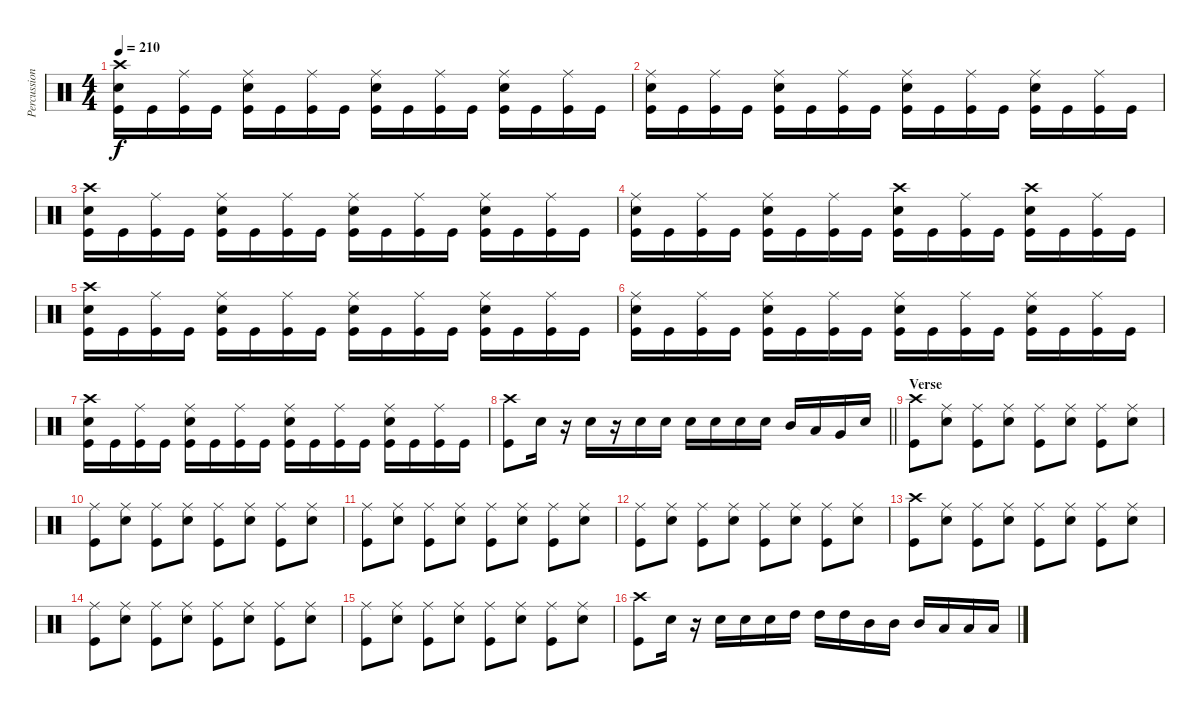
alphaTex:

\track ("Percussion" "Percussion") {instrument percussion}
\staff {score}
\articulation defaults
\ts (4 4)
\section ("" "")
\tempo 210
\clef neutral
\ks c
("Crash high (hit)" "Snare (hit) 2" "Kick (hit)").16{dy f} "Kick (hit)".16 ("Ride (middle)" "Kick (hit)").16 "Kick (hit)".16 ("Ride (middle)" "Snare (hit) 2" "Kick (hit)").16 "Kick (hit)".16 ("Ride (middle)" "Kick (hit)").16 "Kick (hit)".16 ("Ride (middle)" "Snare (hit) 2" "Kick (hit)").16 "Kick (hit)".16 ("Ride (middle)" "Kick (hit)").16 "Kick (hit)".16 ("Ride (middle)" "Snare (hit) 2" "Kick (hit)").16 "Kick (hit)".16 ("Ride (middle)" "Kick (hit)").16 "Kick (hit)".16 |
("Ride (middle)" "Snare (hit) 2" "Kick (hit)").16 "Kick (hit)".16 ("Ride (middle)" "Kick (hit)").16 "Kick (hit)".16 ("Ride (middle)" "Snare (hit) 2" "Kick (hit)").16 "Kick (hit)".16 ("Ride (middle)" "Kick (hit)").16 "Kick (hit)".16 ("Ride (middle)" "Snare (hit) 2" "Kick (hit)").16 "Kick (hit)".16 ("Ride (middle)" "Kick (hit)").16 "Kick (hit)".16 ("Ride (middle)" "Snare (hit) 2" "Kick (hit)").16 "Kick (hit)".16 ("Ride (middle)" "Kick (hit)").16 "Kick (hit)".16 |
("Crash high (hit)" "Snare (hit) 2" "Kick (hit)").16 "Kick (hit)".16 ("Ride (middle)" "Kick (hit)").16 "Kick (hit)".16 ("Ride (middle)" "Snare (hit) 2" "Kick (hit)").16 "Kick (hit)".16 ("Ride (middle)" "Kick (hit)").16 "Kick (hit)".16 ("Ride (middle)" "Snare (hit) 2" "Kick (hit)").16 "Kick (hit)".16 ("Ride (middle)" "Kick (hit)").16 "Kick (hit)".16 ("Ride (middle)" "Snare (hit) 2" "Kick (hit)").16 "Kick (hit)".16 ("Ride (middle)" "Kick (hit)").16 "Kick (hit)".16 |
("Ride (middle)" "Snare (hit) 2" "Kick (hit)").16 "Kick (hit)".16 ("Ride (middle)" "Kick (hit)").16 "Kick (hit)".16 ("Ride (middle)" "Snare (hit) 2" "Kick (hit)").16 "Kick (hit)".16 ("Ride (middle)" "Kick (hit)").16 "Kick (hit)".16 ("Crash high (hit)" "Snare (hit) 2" "Kick (hit)").16 "Kick (hit)".16 ("Ride (middle)" "Kick (hit)").16 "Kick (hit)".16 ("Crash high (hit)" "Snare (hit) 2" "Kick (hit)").16 "Kick (hit)".16 ("Ride (middle)" "Kick (hit)").16 "Kick (hit)".16 |
("Crash high (hit)" "Snare (hit) 2" "Kick (hit)").16 "Kick (hit)".16 ("Ride (middle)" "Kick (hit)").16 "Kick (hit)".16 ("Ride (middle)" "Snare (hit) 2" "Kick (hit)").16 "Kick (hit)".16 ("Ride (middle)" "Kick (hit)").16 "Kick (hit)".16 ("Ride (middle)" "Snare (hit) 2" "Kick (hit)").16 "Kick (hit)".16 ("Ride (middle)" "Kick (hit)").16 "Kick (hit)".16 ("Ride (middle)" "Snare (hit) 2" "Kick (hit)").16 "Kick (hit)".16 ("Ride (middle)" "Kick (hit)").16 "Kick (hit)".16 |
("Ride (middle)" "Snare (hit) 2" "Kick (hit)").16 "Kick (hit)".16 ("Ride (middle)" "Kick (hit)").16 "Kick (hit)".16 ("Ride (middle)" "Snare (hit) 2" "Kick (hit)").16 "Kick (hit)".16 ("Ride (middle)" "Kick (hit)").16 "Kick (hit)".16 ("Ride (middle)" "Snare (hit) 2" "Kick (hit)").16 "Kick (hit)".16 ("Ride (middle)" "Kick (hit)").16 "Kick (hit)".16 ("Ride (middle)" "Snare (hit) 2" "Kick (hit)").16 "Kick (hit)".16 ("Ride (middle)" "Kick (hit)").16 "Kick (hit)".16 |
("Crash high (hit)" "Snare (hit) 2" "Kick (hit)").16 "Kick (hit)".16 ("Ride (middle)" "Kick (hit)").16 "Kick (hit)".16 ("Ride (middle)" "Snare (hit) 2" "Kick (hit)").16 "Kick (hit)".16 ("Ride (middle)" "Kick (hit)").16 "Kick (hit)".16 ("Ride (middle)" "Snare (hit) 2" "Kick (hit)").16 "Kick (hit)".16 ("Ride (middle)" "Kick (hit)").16 "Kick (hit)".16 ("Ride (middle)" "Snare (hit) 2" "Kick (hit)").16 "Kick (hit)".16 ("Ride (middle)" "Kick (hit)").16 "Kick (hit)".16 |
\barLineRight lightlight
("Crash high (hit)" "Kick (hit)").8 "Snare (hit) 2".16 r.16 "Snare (hit) 2".16 r.16 "Snare (hit) 2".16 "Snare (hit) 2".16 "Snare (hit) 2".16 "Snare (hit) 2".16 "Snare (hit) 2".16 "Snare (hit) 2".16 "Mid Tom (hit)".16 "Low Tom (hit)".16 "Very Low Tom (hit)".16 "Snare (hit) 2".16 |
\section ("" "Verse")
("Crash high (hit)" "Kick (hit)").8 ("Ride (middle)" "Snare (hit) 2").8 ("Ride (middle)" "Kick (hit)").8 ("Ride (middle)" "Snare (hit) 2").8 ("Ride (middle)" "Kick (hit)").8 ("Ride (middle)" "Snare (hit) 2").8 ("Ride (middle)" "Kick (hit)").8 ("Ride (middle)" "Snare (hit) 2").8 |
("Ride (middle)" "Kick (hit)").8 ("Ride (middle)" "Snare (hit) 2").8 ("Ride (middle)" "Kick (hit)").8 ("Ride (middle)" "Snare (hit) 2").8 ("Ride (middle)" "Kick (hit)").8 ("Ride (middle)" "Snare (hit) 2").8 ("Ride (middle)" "Kick (hit)").8 ("Ride (middle)" "Snare (hit) 2").8 |
("Ride (middle)" "Kick (hit)").8 ("Ride (middle)" "Snare (hit) 2").8 ("Ride (middle)" "Kick (hit)").8 ("Ride (middle)" "Snare (hit) 2").8 ("Ride (middle)" "Kick (hit)").8 ("Ride (middle)" "Snare (hit) 2").8 ("Ride (middle)" "Kick (hit)").8 ("Ride (middle)" "Snare (hit) 2").8 |
("Ride (middle)" "Kick (hit)").8 ("Ride (middle)" "Snare (hit) 2").8 ("Ride (middle)" "Kick (hit)").8 ("Ride (middle)" "Snare (hit) 2").8 ("Ride (middle)" "Kick (hit)").8 ("Ride (middle)" "Snare (hit) 2").8 ("Ride (middle)" "Kick (hit)").8 ("Ride (middle)" "Snare (hit) 2").8 |
("Crash high (hit)" "Kick (hit)").8 ("Ride (middle)" "Snare (hit) 2").8 ("Ride (middle)" "Kick (hit)").8 ("Ride (middle)" "Snare (hit) 2").8 ("Ride (middle)" "Kick (hit)").8 ("Ride (middle)" "Snare (hit) 2").8 ("Ride (middle)" "Kick (hit)").8 ("Ride (middle)" "Snare (hit) 2").8 |
("Ride (middle)" "Kick (hit)").8 ("Ride (middle)" "Snare (hit) 2").8 ("Ride (middle)" "Kick (hit)").8 ("Ride (middle)" "Snare (hit) 2").8 ("Ride (middle)" "Kick (hit)").8 ("Ride (middle)" "Snare (hit) 2").8 ("Ride (middle)" "Kick (hit)").8 ("Ride (middle)" "Snare (hit) 2").8 |
("Ride (middle)" "Kick (hit)").8 ("Ride (middle)" "Snare (hit) 2").8 ("Ride (middle)" "Kick (hit)").8 ("Ride (middle)" "Snare (hit) 2").8 ("Ride (middle)" "Kick (hit)").8 ("Ride (middle)" "Snare (hit) 2").8 ("Ride (middle)" "Kick (hit)").8 ("Ride (middle)" "Snare (hit) 2").8 |
("Crash high (hit)" "Kick (hit)").8 "Snare (hit) 2".16 r.16 "Snare (hit) 2".16 "Snare (hit) 2".16 "Snare (hit) 2".16 "High Tom (hit)".16 "High Tom (hit)".16 "High Tom (hit)".16 "Mid Tom (hit)".16 "Mid Tom (hit)".16 "Mid Tom (hit)".16 "Low Tom (hit)".16 "Low Tom (hit)".16 "Low Tom (hit)".16
